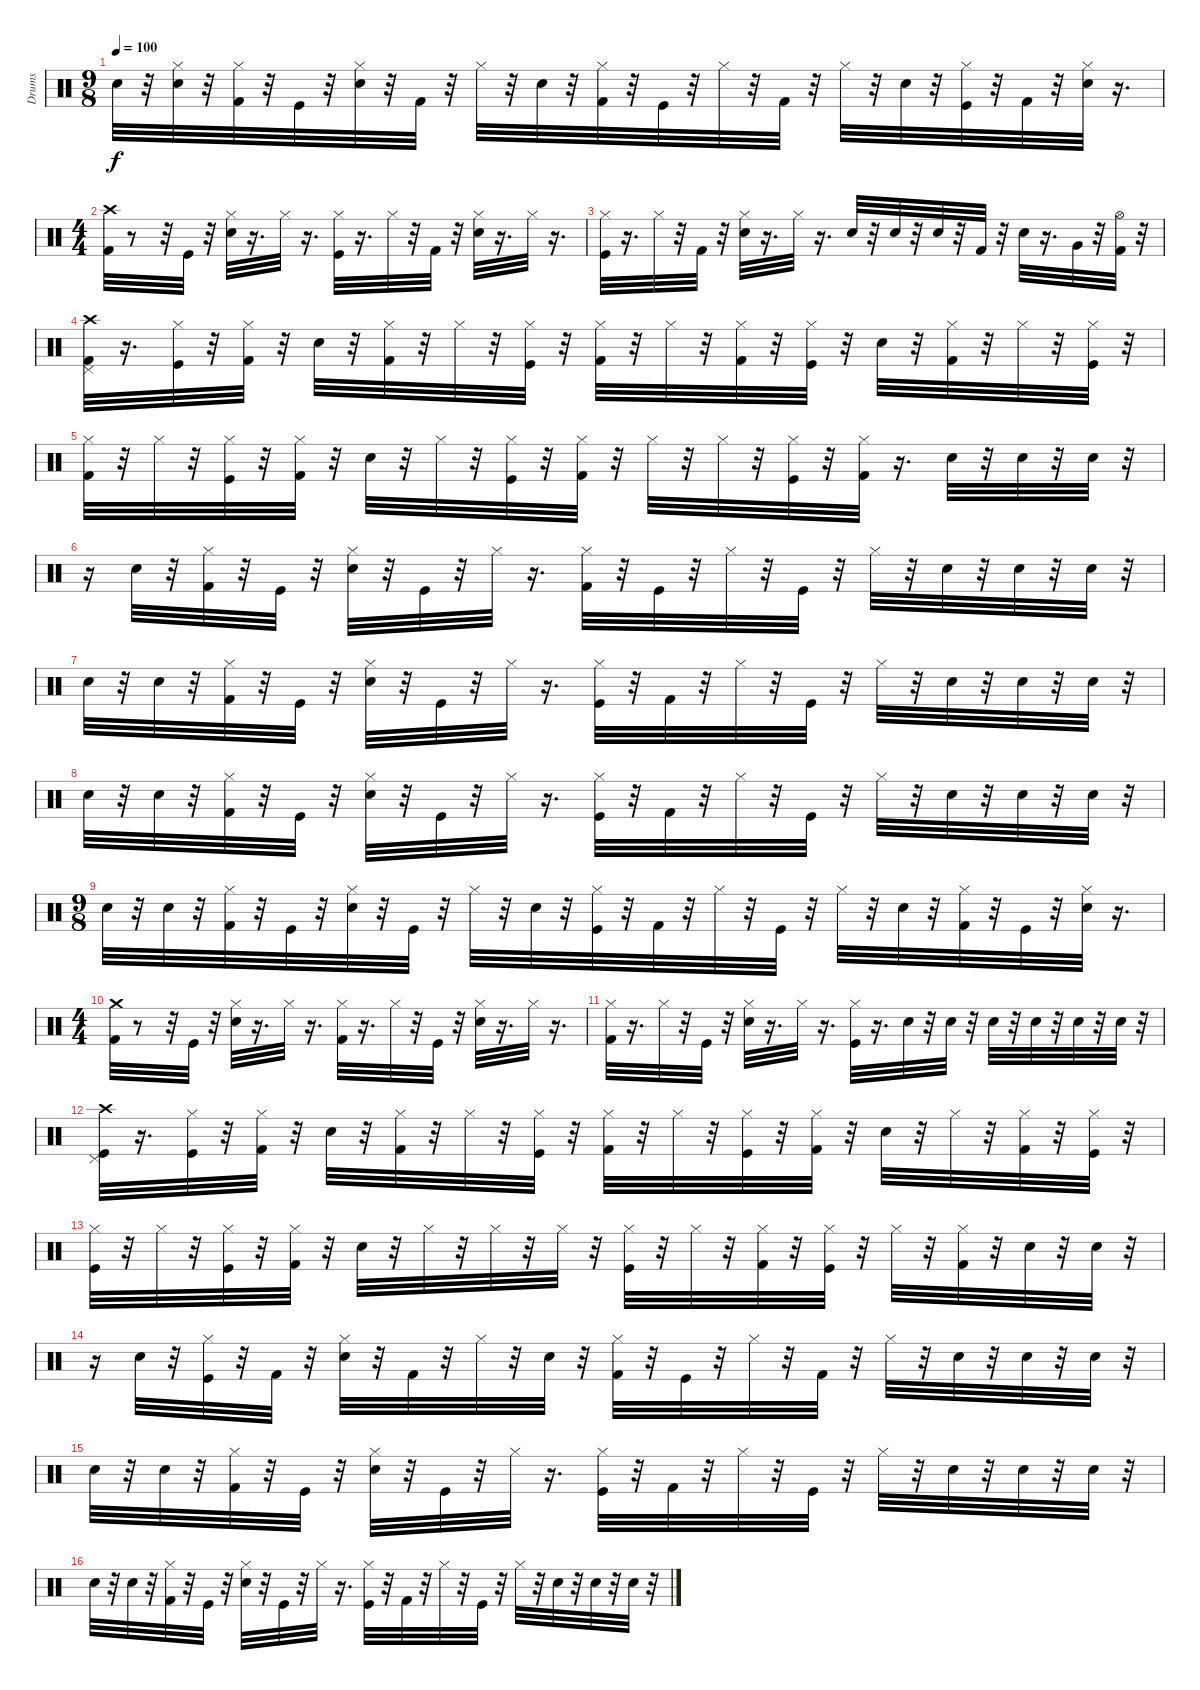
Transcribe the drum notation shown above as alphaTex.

\track ("Drums" "Drums") {instrument percussion}
\staff {score}
\articulation defaults
\ts (9 8)
\tempo 100
\clef neutral
\ks c "Electric Snare (hit)".32{dy f}
r.32 ("Hi-Hat (closed)" "Electric Snare (hit)").32 r.32 ("Hi-Hat (closed)" "Kick (hit) 2").32 r.32 "Kick (hit)".32 r.32 ("Hi-Hat (closed)" "Electric Snare (hit)").32 r.32 "Kick (hit) 2".32 r.32 "Hi-Hat (closed)".32 r.32 "Electric Snare (hit)".32 r.32 ("Hi-Hat (closed)" "Kick (hit) 2").32 r.32 "Kick (hit)".32 r.32 "Hi-Hat (closed)".32 r.32 "Kick (hit) 2".32 r.32 "Hi-Hat (closed)".32 r.32 "Electric Snare (hit)".32 r.32 ("Hi-Hat (closed)" "Kick (hit)").32 r.32 "Kick (hit) 2".32 r.32 ("Hi-Hat (closed)" "Electric Snare (hit)").32 r.16{d} |
\ts (4 4)
("Kick (hit) 2" "Crash high (hit)").32 r.8 r.32 "Kick (hit)".32 r.32 ("Hi-Hat (closed)" "Electric Snare (hit)").32 r.16{d} "Hi-Hat (closed)".32 r.16{d} ("Hi-Hat (closed)" "Kick (hit)").32 r.16{d} "Hi-Hat (closed)".32 r.32 "Kick (hit) 2".32 r.32 ("Hi-Hat (closed)" "Electric Snare (hit)").32 r.16{d} "Hi-Hat (closed)".32 r.16{d} |
("Kick (hit)" "Hi-Hat (closed)").32 r.16{d} "Hi-Hat (closed)".32 r.32 "Kick (hit) 2".32 r.32 ("Electric Snare (hit)" "Hi-Hat (closed)").32 r.16{d} "Hi-Hat (closed)".32 r.16{d} "Electric Snare (hit)".32 r.32 "Electric Snare (hit)".32 r.32 "Electric Snare (hit)".32 r.32 "Kick (hit) 2".32 r.32 "Electric Snare (hit)".32 r.16{d} "Very Low Tom (hit)".32 r.32 ("Kick (hit) 2" "Hi-Hat (open)").32 r.32 |
("Kick (hit) 2" "Crash high (hit)" "Pedal Hi-Hat (hit)").32 r.16{d} ("Kick (hit)" "Hi-Hat (closed)").32 r.32 ("Kick (hit) 2" "Hi-Hat (closed)").32 r.32 "Electric Snare (hit)".32 r.32 ("Kick (hit) 2" "Hi-Hat (closed)").32 r.32 "Hi-Hat (closed)".32 r.32 ("Kick (hit)" "Hi-Hat (closed)").32 r.32 ("Kick (hit) 2" "Hi-Hat (closed)").32 r.32 "Hi-Hat (closed)".32 r.32 ("Kick (hit) 2" "Hi-Hat (closed)").32 r.32 ("Kick (hit)" "Hi-Hat (closed)").32 r.32 "Electric Snare (hit)".32 r.32 ("Kick (hit) 2" "Hi-Hat (closed)").32 r.32 "Hi-Hat (closed)".32 r.32 ("Kick (hit)" "Hi-Hat (closed)").32 r.32 |
("Kick (hit) 2" "Hi-Hat (closed)").32 r.32 "Hi-Hat (closed)".32 r.32 ("Kick (hit)" "Hi-Hat (closed)").32 r.32 ("Kick (hit) 2" "Hi-Hat (closed)").32 r.32 "Electric Snare (hit)".32 r.32 "Hi-Hat (closed)".32 r.32 ("Kick (hit)" "Hi-Hat (closed)").32 r.32 ("Kick (hit) 2" "Hi-Hat (closed)").32 r.32 "Hi-Hat (closed)".32 r.32 "Hi-Hat (closed)".32 r.32 ("Kick (hit)" "Hi-Hat (closed)").32 r.32 ("Kick (hit) 2" "Hi-Hat (closed)").32 r.16{d} "Electric Snare (hit)".32 r.32 "Electric Snare (hit)".32 r.32 "Electric Snare (hit)".32 r.32 |
r.16 "Snare (hit) 2".32 r.32 ("Hi-Hat (closed)" "Kick (hit) 2").32 r.32 "Kick (hit)".32 r.32 ("Hi-Hat (closed)" "Electric Snare (hit)").32 r.32 "Kick (hit)".32 r.32 "Hi-Hat (closed)".32 r.16{d} ("Hi-Hat (closed)" "Kick (hit) 2").32 r.32 "Kick (hit)".32 r.32 "Hi-Hat (closed)".32 r.32 "Kick (hit)".32 r.32 "Hi-Hat (closed)".32 r.32 "Electric Snare (hit)".32 r.32 "Electric Snare (hit)".32 r.32 "Electric Snare (hit)".32 r.32 |
"Snare (hit) 2".32 r.32 "Snare (hit) 2".32 r.32 ("Kick (hit) 2" "Hi-Hat (closed)").32 r.32 "Kick (hit)".32 r.32 ("Electric Snare (hit)" "Hi-Hat (closed)").32 r.32 "Kick (hit)".32 r.32 "Hi-Hat (closed)".32 r.16{d} ("Kick (hit)" "Hi-Hat (closed)").32 r.32 "Kick (hit) 2".32 r.32 "Hi-Hat (closed)".32 r.32 "Kick (hit)".32 r.32 "Hi-Hat (closed)".32 r.32 "Electric Snare (hit)".32 r.32 "Electric Snare (hit)".32 r.32 "Electric Snare (hit)".32 r.32 |
"Snare (hit) 2".32 r.32 "Snare (hit) 2".32 r.32 ("Kick (hit) 2" "Hi-Hat (closed)").32 r.32 "Kick (hit)".32 r.32 ("Electric Snare (hit)" "Hi-Hat (closed)").32 r.32 "Kick (hit)".32 r.32 "Hi-Hat (closed)".32 r.16{d} ("Kick (hit)" "Hi-Hat (closed)").32 r.32 "Kick (hit) 2".32 r.32 "Hi-Hat (closed)".32 r.32 "Kick (hit)".32 r.32 "Hi-Hat (closed)".32 r.32 "Electric Snare (hit)".32 r.32 "Electric Snare (hit)".32 r.32 "Electric Snare (hit)".32 r.32 |
\ts (9 8)
"Snare (hit) 2".32 r.32 "Snare (hit) 2".32 r.32 ("Kick (hit) 2" "Hi-Hat (closed)").32 r.32 "Kick (hit)".32 r.32 ("Electric Snare (hit)" "Hi-Hat (closed)").32 r.32 "Kick (hit)".32 r.32 "Hi-Hat (closed)".32 r.32 "Electric Snare (hit)".32 r.32 ("Kick (hit)" "Hi-Hat (closed)").32 r.32 "Kick (hit) 2".32 r.32 "Hi-Hat (closed)".32 r.32 "Kick (hit)".32 r.32 "Hi-Hat (closed)".32 r.32 "Electric Snare (hit)".32 r.32 ("Hi-Hat (closed)" "Kick (hit) 2").32 r.32 "Kick (hit)".32 r.32 ("Hi-Hat (closed)" "Electric Snare (hit)").32 r.16{d} |
\ts (4 4)
("Kick (hit) 2" "Crash medium (hit)").32 r.8 r.32 "Kick (hit)".32 r.32 ("Electric Snare (hit)" "Hi-Hat (closed)").32 r.16{d} "Hi-Hat (closed)".32 r.16{d} ("Kick (hit) 2" "Hi-Hat (closed)").32 r.16{d} "Hi-Hat (closed)".32 r.32 "Kick (hit)".32 r.32 ("Electric Snare (hit)" "Hi-Hat (closed)").32 r.16{d} "Hi-Hat (closed)".32 r.16{d} |
("Hi-Hat (closed)" "Kick (hit) 2").32 r.16{d} "Hi-Hat (closed)".32 r.32 "Kick (hit)".32 r.32 ("Hi-Hat (closed)" "Electric Snare (hit)").32 r.16{d} "Hi-Hat (closed)".32 r.16{d} ("Hi-Hat (closed)" "Kick (hit)").32 r.16{d} "Electric Snare (hit)".32 r.32 "Electric Snare (hit)".32 r.32 "Electric Snare (hit)".32 r.32 "Electric Snare (hit)".32 r.32 "Electric Snare (hit)".32 r.32 "Electric Snare (hit)".32 r.32 |
("Kick (hit)" "Pedal Hi-Hat (hit)" "Crash high (hit)").32 r.16{d} ("Kick (hit)" "Hi-Hat (closed)").32 r.32 ("Kick (hit) 2" "Hi-Hat (closed)").32 r.32 "Electric Snare (hit)".32 r.32 ("Kick (hit) 2" "Hi-Hat (closed)").32 r.32 "Hi-Hat (closed)".32 r.32 ("Kick (hit)" "Hi-Hat (closed)").32 r.32 ("Kick (hit) 2" "Hi-Hat (closed)").32 r.32 "Hi-Hat (closed)".32 r.32 ("Kick (hit)" "Hi-Hat (closed)").32 r.32 ("Kick (hit) 2" "Hi-Hat (closed)").32 r.32 "Electric Snare (hit)".32 r.32 "Hi-Hat (closed)".32 r.32 ("Kick (hit) 2" "Hi-Hat (closed)").32 r.32 ("Kick (hit)" "Hi-Hat (closed)").32 r.32 |
("Hi-Hat (closed)" "Kick (hit)").32 r.32 "Hi-Hat (closed)".32 r.32 ("Hi-Hat (closed)" "Kick (hit)").32 r.32 ("Hi-Hat (closed)" "Kick (hit) 2").32 r.32 "Electric Snare (hit)".32 r.32 "Hi-Hat (closed)".32 r.32 "Hi-Hat (closed)".32 r.32 "Hi-Hat (closed)".32 r.32 ("Hi-Hat (closed)" "Kick (hit)").32 r.32 "Hi-Hat (closed)".32 r.32 ("Hi-Hat (closed)" "Kick (hit) 2").32 r.32 ("Hi-Hat (closed)" "Kick (hit)").32 r.32 "Hi-Hat (closed)".32 r.32 ("Hi-Hat (closed)" "Kick (hit) 2").32 r.32 "Electric Snare (hit)".32 r.32 "Electric Snare (hit)".32 r.32 |
r.16 "Electric Snare (hit)".32 r.32 ("Kick (hit)" "Hi-Hat (closed)").32 r.32 "Kick (hit) 2".32 r.32 ("Electric Snare (hit)" "Hi-Hat (closed)").32 r.32 "Kick (hit) 2".32 r.32 "Hi-Hat (closed)".32 r.32 "Electric Snare (hit)".32 r.32 ("Kick (hit) 2" "Hi-Hat (closed)").32 r.32 "Kick (hit)".32 r.32 "Hi-Hat (closed)".32 r.32 "Kick (hit) 2".32 r.32 "Hi-Hat (closed)".32 r.32 "Electric Snare (hit)".32 r.32 "Electric Snare (hit)".32 r.32 "Electric Snare (hit)".32 r.32 |
"Snare (hit) 2".32 r.32 "Snare (hit) 2".32 r.32 ("Kick (hit) 2" "Hi-Hat (closed)").32 r.32 "Kick (hit)".32 r.32 ("Electric Snare (hit)" "Hi-Hat (closed)").32 r.32 "Kick (hit)".32 r.32 "Hi-Hat (closed)".32 r.16{d} ("Kick (hit)" "Hi-Hat (closed)").32 r.32 "Kick (hit) 2".32 r.32 "Hi-Hat (closed)".32 r.32 "Kick (hit)".32 r.32 "Hi-Hat (closed)".32 r.32 "Electric Snare (hit)".32 r.32 "Electric Snare (hit)".32 r.32 "Electric Snare (hit)".32 r.32 |
"Snare (hit) 2".32 r.32 "Snare (hit) 2".32 r.32 ("Kick (hit) 2" "Hi-Hat (closed)").32 r.32 "Kick (hit)".32 r.32 ("Electric Snare (hit)" "Hi-Hat (closed)").32 r.32 "Kick (hit)".32 r.32 "Hi-Hat (closed)".32 r.16{d} ("Kick (hit)" "Hi-Hat (closed)").32 r.32 "Kick (hit) 2".32 r.32 "Hi-Hat (closed)".32 r.32 "Kick (hit)".32 r.32 "Hi-Hat (closed)".32 r.32 "Electric Snare (hit)".32 r.32 "Electric Snare (hit)".32 r.32 "Electric Snare (hit)".32 r.32
